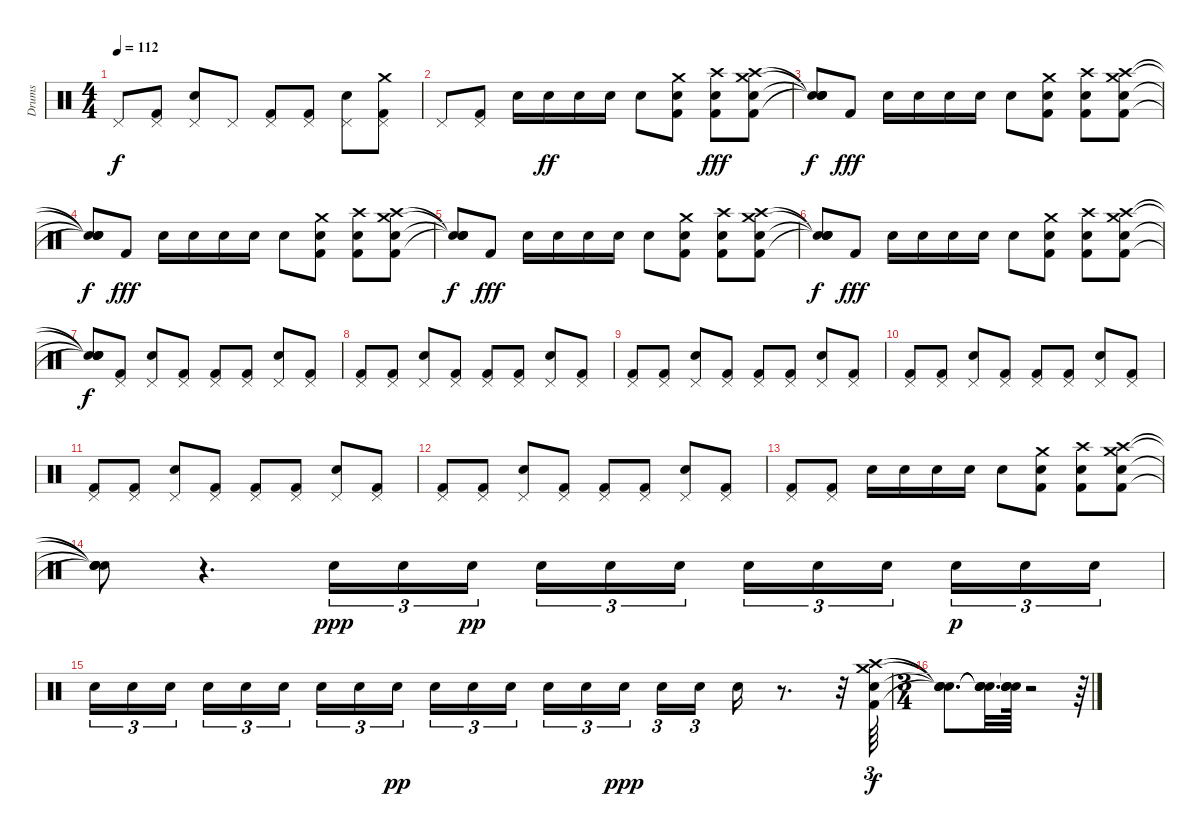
\track ("Drums" "Drums") {instrument percussion}
\staff {score}
\articulation defaults
\ts (4 4)
\tempo 112
\clef neutral
\ks c "Pedal Hi-Hat (hit)".8{dy f}
("Pedal Hi-Hat (hit)" "Kick (hit) 2").8 ("Pedal Hi-Hat (hit)" "Snare (hit) 2").8 "Pedal Hi-Hat (hit)".8 ("Pedal Hi-Hat (hit)" "Kick (hit) 2").8 ("Pedal Hi-Hat (hit)" "Kick (hit) 2").8 ("Pedal Hi-Hat (hit)" "Snare (hit) 2").8 ("Pedal Hi-Hat (hit)" "Crash medium (hit)" "Kick (hit) 2").8 |
"Pedal Hi-Hat (hit)".8 ("Pedal Hi-Hat (hit)" "Kick (hit) 2").8 "Snare (hit) 2".16 "Snare (hit) 2".16{dy ff} "Snare (hit) 2".16 "Snare (hit) 2".16 "Snare (hit) 2".8 ("Kick (hit) 2" "Crash medium (hit)" "Snare (hit) 2").8 ("Kick (hit) 2" "Crash high (hit)" "Snare (hit) 2").8{dy fff} ("Crash high (hit)" "Kick (hit) 2" "Crash medium (hit)" "Snare (hit) 2").8 |
("Snare (hit)"{t} "Snare (hit)"{t} "Snare (hit)"{t} "Snare (hit)"{t}).8{dy f} "Kick (hit) 2".8{dy fff} "Snare (hit) 2".16 "Snare (hit) 2".16 "Snare (hit) 2".16 "Snare (hit) 2".16 "Snare (hit) 2".8 ("Crash medium (hit)" "Kick (hit) 2" "Snare (hit) 2").8 ("Crash high (hit)" "Kick (hit) 2" "Snare (hit) 2").8 ("Snare (hit) 2" "Kick (hit) 2" "Crash medium (hit)" "Crash high (hit)").8 |
("Snare (hit)"{t} "Snare (hit)"{t} "Snare (hit)"{t} "Snare (hit)"{t}).8{dy f} "Kick (hit) 2".8{dy fff} "Snare (hit) 2".16 "Snare (hit) 2".16 "Snare (hit) 2".16 "Snare (hit) 2".16 "Snare (hit) 2".8 ("Crash medium (hit)" "Kick (hit) 2" "Snare (hit) 2").8 ("Crash high (hit)" "Kick (hit) 2" "Snare (hit) 2").8 ("Snare (hit) 2" "Kick (hit) 2" "Crash high (hit)" "Crash medium (hit)").8 |
("Snare (hit)"{t} "Snare (hit)"{t} "Snare (hit)"{t} "Snare (hit)"{t}).8{dy f} "Kick (hit) 2".8{dy fff} "Snare (hit) 2".16 "Snare (hit) 2".16 "Snare (hit) 2".16 "Snare (hit) 2".16 "Snare (hit) 2".8 ("Crash medium (hit)" "Kick (hit) 2" "Snare (hit) 2").8 ("Crash high (hit)" "Kick (hit) 2" "Snare (hit) 2").8 ("Snare (hit) 2" "Kick (hit) 2" "Crash medium (hit)" "Crash high (hit)").8 |
("Snare (hit)"{t} "Snare (hit)"{t} "Snare (hit)"{t} "Snare (hit)"{t}).8{dy f} "Kick (hit) 2".8{dy fff} "Snare (hit) 2".16 "Snare (hit) 2".16 "Snare (hit) 2".16 "Snare (hit) 2".16 "Snare (hit) 2".8 ("Crash medium (hit)" "Kick (hit) 2" "Snare (hit) 2").8 ("Crash high (hit)" "Kick (hit) 2" "Snare (hit) 2").8 ("Snare (hit) 2" "Kick (hit) 2" "Crash medium (hit)" "Crash high (hit)").8 |
("Snare (hit)"{t} "Snare (hit)"{t} "Snare (hit)"{t} "Snare (hit)"{t}).8{dy f} ("Pedal Hi-Hat (hit)" "Kick (hit) 2").8 ("Pedal Hi-Hat (hit)" "Snare (hit) 2").8 ("Pedal Hi-Hat (hit)" "Kick (hit) 2").8 ("Pedal Hi-Hat (hit)" "Kick (hit) 2").8 ("Pedal Hi-Hat (hit)" "Kick (hit) 2").8 ("Pedal Hi-Hat (hit)" "Snare (hit) 2").8 ("Pedal Hi-Hat (hit)" "Kick (hit) 2").8 |
("Pedal Hi-Hat (hit)" "Kick (hit) 2").8 ("Pedal Hi-Hat (hit)" "Kick (hit) 2").8 ("Pedal Hi-Hat (hit)" "Snare (hit) 2").8 ("Pedal Hi-Hat (hit)" "Kick (hit) 2").8 ("Pedal Hi-Hat (hit)" "Kick (hit) 2").8 ("Pedal Hi-Hat (hit)" "Kick (hit) 2").8 ("Pedal Hi-Hat (hit)" "Snare (hit) 2").8 ("Pedal Hi-Hat (hit)" "Kick (hit) 2").8 |
("Kick (hit) 2" "Pedal Hi-Hat (hit)").8 ("Kick (hit) 2" "Pedal Hi-Hat (hit)").8 ("Snare (hit) 2" "Pedal Hi-Hat (hit)").8 ("Kick (hit) 2" "Pedal Hi-Hat (hit)").8 ("Kick (hit) 2" "Pedal Hi-Hat (hit)").8 ("Kick (hit) 2" "Pedal Hi-Hat (hit)").8 ("Snare (hit) 2" "Pedal Hi-Hat (hit)").8 ("Kick (hit) 2" "Pedal Hi-Hat (hit)").8 |
("Kick (hit) 2" "Pedal Hi-Hat (hit)").8 ("Kick (hit) 2" "Pedal Hi-Hat (hit)").8 ("Snare (hit) 2" "Pedal Hi-Hat (hit)").8 ("Kick (hit) 2" "Pedal Hi-Hat (hit)").8 ("Kick (hit) 2" "Pedal Hi-Hat (hit)").8 ("Kick (hit) 2" "Pedal Hi-Hat (hit)").8 ("Snare (hit) 2" "Pedal Hi-Hat (hit)").8 ("Kick (hit) 2" "Pedal Hi-Hat (hit)").8 |
("Kick (hit) 2" "Pedal Hi-Hat (hit)").8 ("Kick (hit) 2" "Pedal Hi-Hat (hit)").8 ("Snare (hit) 2" "Pedal Hi-Hat (hit)").8 ("Kick (hit) 2" "Pedal Hi-Hat (hit)").8 ("Kick (hit) 2" "Pedal Hi-Hat (hit)").8 ("Kick (hit) 2" "Pedal Hi-Hat (hit)").8 ("Snare (hit) 2" "Pedal Hi-Hat (hit)").8 ("Kick (hit) 2" "Pedal Hi-Hat (hit)").8 |
("Kick (hit) 2" "Pedal Hi-Hat (hit)").8 ("Pedal Hi-Hat (hit)" "Kick (hit) 2").8 ("Pedal Hi-Hat (hit)" "Snare (hit) 2").8 ("Pedal Hi-Hat (hit)" "Kick (hit) 2").8 ("Pedal Hi-Hat (hit)" "Kick (hit) 2").8 ("Pedal Hi-Hat (hit)" "Kick (hit) 2").8 ("Pedal Hi-Hat (hit)" "Snare (hit) 2").8 ("Pedal Hi-Hat (hit)" "Kick (hit) 2").8 |
("Pedal Hi-Hat (hit)" "Kick (hit) 2").8 ("Pedal Hi-Hat (hit)" "Kick (hit) 2").8 "Snare (hit) 2".16 "Snare (hit) 2".16 "Snare (hit) 2".16 "Snare (hit) 2".16 "Snare (hit) 2".8 ("Crash medium (hit)" "Kick (hit) 2" "Snare (hit) 2").8 ("Crash high (hit)" "Kick (hit) 2" "Snare (hit) 2").8 ("Kick (hit) 2" "Crash high (hit)" "Crash medium (hit)" "Snare (hit) 2").8 |
("Snare (hit)"{t} "Snare (hit)"{t} "Snare (hit)"{t} "Snare (hit)"{t}).8 r.4{d} "Snare (hit) 2".16{tu (3 2) dy ppp} "Snare (hit) 2".16{tu (3 2)} "Snare (hit) 2".16{tu (3 2) dy pp beam splitsecondary} "Snare (hit) 2".16{tu (3 2)} "Snare (hit) 2".16{tu (3 2)} "Snare (hit) 2".16{tu (3 2)} "Snare (hit) 2".16{tu (3 2)} "Snare (hit) 2".16{tu (3 2)} "Snare (hit) 2".16{tu (3 2) beam splitsecondary} "Snare (hit) 2".16{tu (3 2) dy p} "Snare (hit) 2".16{tu (3 2)} "Snare (hit) 2".16{tu (3 2)} |
"Snare (hit) 2".16{tu (3 2)} "Snare (hit) 2".16{tu (3 2)} "Snare (hit) 2".16{tu (3 2) beam splitsecondary} "Snare (hit) 2".16{tu (3 2)} "Snare (hit) 2".16{tu (3 2)} "Snare (hit) 2".16{tu (3 2)} "Snare (hit) 2".16{tu (3 2)} "Snare (hit) 2".16{tu (3 2)} "Snare (hit) 2".16{tu (3 2) dy pp beam splitsecondary} "Snare (hit) 2".16{tu (3 2)} "Snare (hit) 2".16{tu (3 2)} "Snare (hit) 2".16{tu (3 2)} "Snare (hit) 2".16{tu (3 2)} "Snare (hit) 2".16{tu (3 2)} "Snare (hit) 2".16{tu (3 2) dy ppp beam splitsecondary} "Snare (hit) 2".16{tu (3 2)} "Snare (hit) 2".16{tu (3 2) beam splitsecondary} "Snare (hit) 2".16 r.8{d} r.32 ("Crash high (hit)" "Crash medium (hit)" "Snare (hit) 2" "Kick (hit) 2").64{tu (3 2) dy f} |
\ts (3 4)
("Snare (hit)"{t} "Snare (hit)"{t} "Snare (hit)"{t} "Snare (hit)"{t}).8{d} ("Snare (hit)"{t} "Snare (hit)"{t} "Snare (hit)"{t} "Snare (hit)"{t}).32{d} ("Snare (hit)"{t} "Snare (hit)"{t} "Snare (hit)"{t} "Snare (hit)"{t}).64 r.2 r.64{tu (3 2)}
